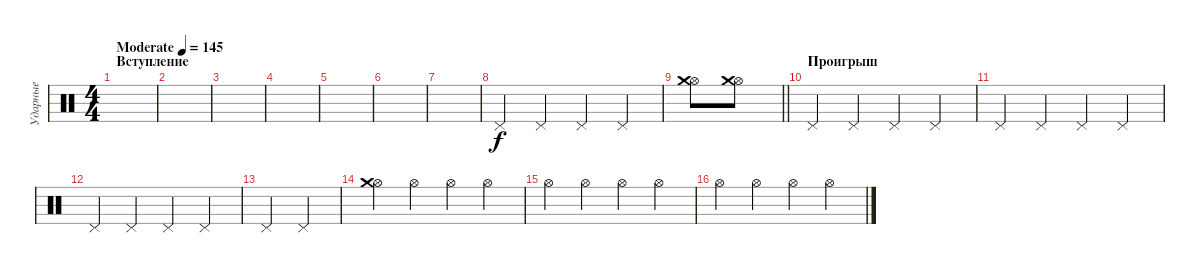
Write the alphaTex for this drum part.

\track ("Ударные" "Ударные") {instrument percussion}
\staff {score}
\articulation defaults
\ts (4 4)
\section ("" "Вступление")
\tempo (145 "Moderate")
\clef neutral
\ks c
|
|
|
|
|
|
|
"Pedal Hi-Hat (hit)".4 "Pedal Hi-Hat (hit)".4 "Pedal Hi-Hat (hit)".4 "Pedal Hi-Hat (hit)".4 |
\barLineRight lightlight
("Hi-Hat (open)" "Crash medium (hit)").8 ("Hi-Hat (open)" "Crash medium (hit)").8 |
\section ("" "Проигрыш")
"Pedal Hi-Hat (hit)".4 "Pedal Hi-Hat (hit)".4 "Pedal Hi-Hat (hit)".4 "Pedal Hi-Hat (hit)".4 |
"Pedal Hi-Hat (hit)".4 "Pedal Hi-Hat (hit)".4 "Pedal Hi-Hat (hit)".4 "Pedal Hi-Hat (hit)".4 |
"Pedal Hi-Hat (hit)".4 "Pedal Hi-Hat (hit)".4 "Pedal Hi-Hat (hit)".4 "Pedal Hi-Hat (hit)".4 |
"Pedal Hi-Hat (hit)".4 "Pedal Hi-Hat (hit)".4 |
("Hi-Hat (open)" "Crash medium (hit)").4 "Hi-Hat (open)".4 "Hi-Hat (open)".4 "Hi-Hat (open)".4 |
"Hi-Hat (open)".4 "Hi-Hat (open)".4 "Hi-Hat (open)".4 "Hi-Hat (open)".4 |
"Hi-Hat (open)".4 "Hi-Hat (open)".4 "Hi-Hat (open)".4 "Hi-Hat (open)".4
